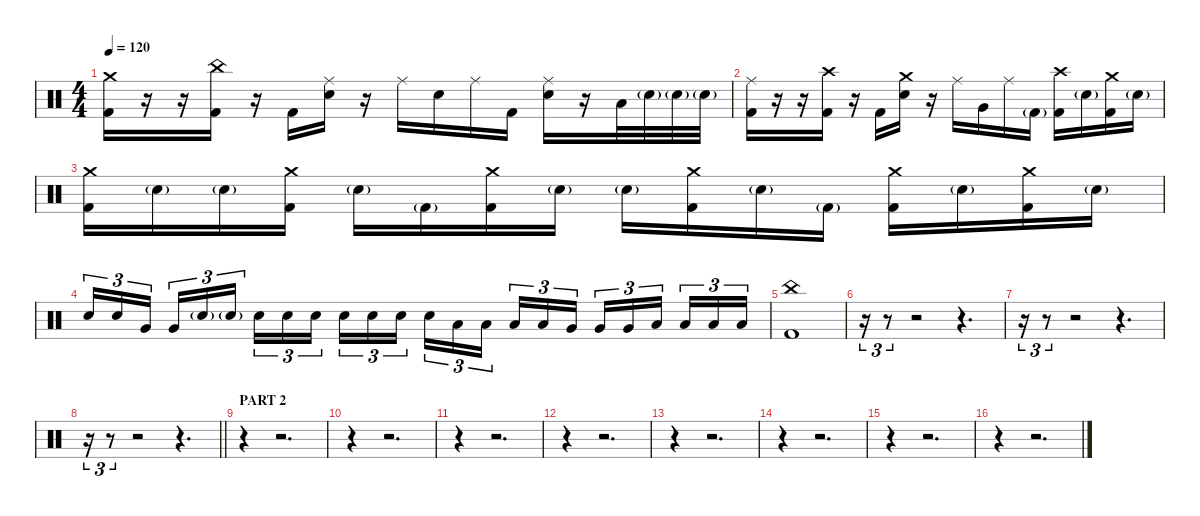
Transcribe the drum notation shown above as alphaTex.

\defaultSystemsLayout 4
\hideDynamics
\bracketExtendMode nobrackets
\singleTrackTrackNamePolicy hidden
\multiTrackTrackNamePolicy hidden
\firstSystemTrackNameMode fullname
\firstSystemTrackNameOrientation horizontal
\otherSystemsTrackNameOrientation horizontal
\track ("Martin Axenrot - Drums" "drm.") {instrument percussion}
\staff {score}
\articulation defaults
\ts (4 4)
\tempo 120
\clef neutral
\ks c
("Crash medium (hit)" "Kick (hit) 2").16{dy f beam Down} r.16{beam Down} r.16{beam Down} ("China (hit)" "Kick (hit) 2").16{beam Down} r.16{beam Down} "Kick (hit) 2".16{beam Down} ("Ride (middle)" "Snare (hit) 2").16{beam Down} r.16{beam Down} "Ride (middle)".16{beam Down} "Snare (hit) 2".16{beam Down} "Ride (middle)".16{beam Down} "Kick (hit) 2".16{beam Down} ("Ride (middle)" "Snare (hit) 2").16{beam Down} r.16{beam Down} "Low Floor Tom (hit)".32{dy ff beam Down} "Snare (hit) 2"{g}.32{dy mf beam Down} "Snare (hit) 2"{g}.32{beam Down} "Snare (hit) 2"{g}.32{beam Down} |
("Ride (middle)" "Kick (hit) 2").16{dy f beam Down} r.16{beam Down} r.16{beam Down} ("Crash high (hit)" "Kick (hit) 2").16{beam Down} r.16{beam Down} "Kick (hit) 2".16{beam Down} ("Crash medium (hit)" "Snare (hit) 2").16{beam Down} r.16{beam Down} "Ride (middle)".16{beam Down} "Very Low Tom (hit)".16{dy ff beam Down} "Ride (middle)".16{dy f beam Down} "Kick (hit) 2"{g}.16{dy mf beam Down} ("Crash high (hit)" "Kick (hit) 2").16{dy f beam Down} "Snare (hit) 2"{g}.16{dy mf beam Down} ("Crash medium (hit)" "Kick (hit) 2").16{dy f beam Down} "Snare (hit) 2"{g}.16{dy mf beam Down} |
("Crash medium (hit)" "Kick (hit) 2").16{dy f beam Down} "Snare (hit) 2"{g}.16{dy mf beam Down} "Snare (hit) 2"{g}.16{beam Down} ("Crash medium (hit)" "Kick (hit) 2").16{dy f beam Down} "Snare (hit) 2"{g}.16{dy mf beam Down} "Kick (hit) 2"{g}.16{beam Down} ("Crash medium (hit)" "Kick (hit) 2").16{dy f beam Down} "Snare (hit) 2"{g}.16{dy mf beam Down} "Snare (hit) 2"{g}.16{beam Down} ("Crash medium (hit)" "Kick (hit) 2").16{dy f beam Down} "Snare (hit) 2"{g}.16{dy mf beam Down} "Kick (hit) 2"{g}.16{beam Down} ("Crash medium (hit)" "Kick (hit) 2").16{dy f beam Down} "Snare (hit) 2"{g}.16{dy mf beam Down} ("Crash medium (hit)" "Kick (hit) 2").16{dy f beam Down} "Snare (hit) 2"{g}.16{dy mf beam Down} |
"Snare (hit) 2".16{tu (3 2) dy f beam Up} "Snare (hit) 2".16{tu (3 2) dy mf beam Up} "Very Low Tom (hit)".16{tu (3 2) dy f beam Up} "Very Low Tom (hit)".16{tu (3 2) dy ff beam Up} "Snare (hit) 2"{g}.16{tu (3 2) dy mf beam Up} "Snare (hit) 2"{g}.16{tu (3 2) beam Up} "Snare (hit) 2".16{tu (3 2) dy f beam Down} "Snare (hit) 2".16{tu (3 2) beam Down} "Snare (hit) 2".16{tu (3 2) beam Down} "Snare (hit) 2".16{tu (3 2) beam Down} "Snare (hit) 2".16{tu (3 2) beam Down} "Snare (hit) 2".16{tu (3 2) beam Down} "Snare (hit) 2".16{tu (3 2) beam Down} "Low Tom (hit)".16{tu (3 2) dy mf beam Down} "Low Tom (hit)".16{tu (3 2) dy f beam Down} "Low Tom (hit)".16{tu (3 2) dy fff beam Up} "Low Tom (hit)".16{tu (3 2) dy mf beam Up} "Very Low Tom (hit)".16{tu (3 2) dy f beam Up} "Very Low Tom (hit)".16{tu (3 2) dy fff beam Up} "Very Low Tom (hit)".16{tu (3 2) dy mf beam Up} "Low Floor Tom (hit)".16{tu (3 2) dy f beam Up} "Low Floor Tom (hit)".16{tu (3 2) dy fff beam Up} "Low Floor Tom (hit)".16{tu (3 2) dy mf beam Up} "Low Floor Tom (hit)".16{tu (3 2) dy f beam Up} |
("China (hit)" "Kick (hit) 2").1{dy fff beam Down} |
r.16{tu (3 2) beam Down} r.8{tu (3 2) beam Down} r.2{beam Down} r.4{d beam Down} |
r.16{tu (3 2) beam Down} r.8{tu (3 2) beam Down} r.2{beam Down} r.4{d beam Down} |
\barLineRight lightlight
r.16{tu (3 2) beam Down} r.8{tu (3 2) beam Down} r.2{beam Down} r.4{d beam Down} |
\section ("" "PART 2")
r.4{beam Down} r.2{d beam Down} |
r.4{beam Down} r.2{d beam Down} |
r.4{beam Down} r.2{d beam Down} |
r.4{beam Down} r.2{d beam Down} |
r.4{beam Down} r.2{d beam Down} |
r.4{beam Down} r.2{d beam Down} |
r.4{beam Down} r.2{d beam Down} |
r.4{beam Down} r.2{d beam Down}
